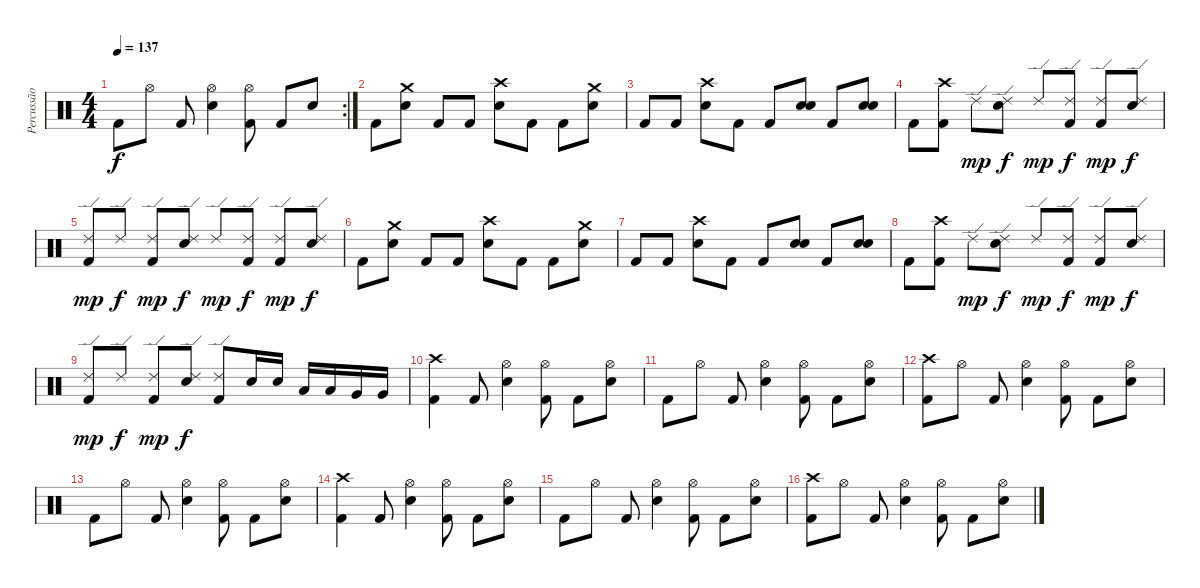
\track ("Percussão" "Percussão") {instrument percussion}
\staff {score}
\articulation defaults
\rc 2
\ts (4 4)
\tempo 137
\clef neutral
\ks c "Kick (hit) 2".8{dy f} "Hi-Hat (open)".8 "Kick (hit) 2".8
("Hi-Hat (open)" "Electric Snare (hit)").4 ("Hi-Hat (open)" "Kick (hit) 2").8 "Kick (hit) 2".8 "Electric Snare (hit)".8 |
"Kick (hit) 2".8 ("Crash medium (hit)" "Electric Snare (hit)").8 "Kick (hit) 2".8 "Kick (hit) 2".8 ("Crash high (hit)" "Electric Snare (hit)").8 "Kick (hit) 2".8 "Kick (hit) 2".8 ("Crash medium (hit)" "Electric Snare (hit)").8 |
"Kick (hit) 2".8 "Kick (hit) 2".8 ("Crash high (hit)" "Electric Snare (hit)").8 "Kick (hit) 2".8 "Kick (hit) 2".8 ("Electric Snare (hit)" "Electric Snare (hit)").8{bd 60} "Kick (hit) 2".8 ("Electric Snare (hit)" "Electric Snare (hit)").8{bd 60} |
"Kick (hit) 2".8 ("Crash high (hit)" "Kick (hit) 2").8 "Ride (edge) 2".8{dy mp} ("Ride (edge) 2" "Electric Snare (hit)").8{dy f} "Ride (edge) 2".8{dy mp} ("Ride (edge) 2" "Kick (hit) 2").8{dy f} ("Ride (edge) 2" "Kick (hit) 2").8{dy mp} ("Ride (edge) 2" "Electric Snare (hit)").8{dy f} |
("Ride (edge) 2" "Kick (hit) 2").8{dy mp} "Ride (edge) 2".8{dy f} ("Ride (edge) 2" "Kick (hit) 2").8{dy mp} ("Ride (edge) 2" "Electric Snare (hit)").8{dy f} "Ride (edge) 2".8{dy mp} ("Ride (edge) 2" "Kick (hit) 2").8{dy f} ("Ride (edge) 2" "Kick (hit) 2").8{dy mp} ("Ride (edge) 2" "Electric Snare (hit)").8{dy f} |
"Kick (hit) 2".8 ("Crash medium (hit)" "Electric Snare (hit)").8 "Kick (hit) 2".8 "Kick (hit) 2".8 ("Crash high (hit)" "Electric Snare (hit)").8 "Kick (hit) 2".8 "Kick (hit) 2".8 ("Crash medium (hit)" "Electric Snare (hit)").8 |
"Kick (hit) 2".8 "Kick (hit) 2".8 ("Crash high (hit)" "Electric Snare (hit)").8 "Kick (hit) 2".8 "Kick (hit) 2".8 ("Electric Snare (hit)" "Electric Snare (hit)").8{bd 60} "Kick (hit) 2".8 ("Electric Snare (hit)" "Electric Snare (hit)").8{bd 60} |
"Kick (hit) 2".8 ("Crash high (hit)" "Kick (hit) 2").8 "Ride (edge) 2".8{dy mp} ("Ride (edge) 2" "Electric Snare (hit)").8{dy f} "Ride (edge) 2".8{dy mp} ("Ride (edge) 2" "Kick (hit) 2").8{dy f} ("Ride (edge) 2" "Kick (hit) 2").8{dy mp} ("Ride (edge) 2" "Electric Snare (hit)").8{dy f} |
("Ride (edge) 2" "Kick (hit) 2").8{dy mp} "Ride (edge) 2".8{dy f} ("Ride (edge) 2" "Kick (hit) 2").8{dy mp} ("Ride (edge) 2" "Electric Snare (hit)").8{dy f} ("Ride (edge) 2" "Kick (hit) 2").8 "Electric Snare (hit)".16 "Electric Snare (hit)".16 "Low Tom (hit)".16 "Low Tom (hit)".16 "Very Low Tom (hit)".16 "Very Low Tom (hit)".16 |
("Crash high (hit)" "Kick (hit) 2").4 "Kick (hit) 2".8 ("Hi-Hat (open)" "Electric Snare (hit)").4 ("Hi-Hat (open)" "Kick (hit) 2").8 "Kick (hit) 2".8 ("Hi-Hat (open)" "Electric Snare (hit)").8 |
"Kick (hit) 2".8 "Hi-Hat (open)".8 "Kick (hit) 2".8 ("Hi-Hat (open)" "Electric Snare (hit)").4 ("Hi-Hat (open)" "Kick (hit) 2").8 "Kick (hit) 2".8 ("Hi-Hat (open)" "Electric Snare (hit)").8 |
("Crash high (hit)" "Kick (hit) 2").8 "Hi-Hat (open)".8 "Kick (hit) 2".8 ("Hi-Hat (open)" "Electric Snare (hit)").4 ("Hi-Hat (open)" "Kick (hit) 2").8 "Kick (hit) 2".8 ("Hi-Hat (open)" "Electric Snare (hit)").8 |
"Kick (hit) 2".8 "Hi-Hat (open)".8 "Kick (hit) 2".8 ("Hi-Hat (open)" "Electric Snare (hit)").4 ("Hi-Hat (open)" "Kick (hit) 2").8 "Kick (hit) 2".8 ("Hi-Hat (open)" "Electric Snare (hit)").8 |
("Crash high (hit)" "Kick (hit) 2").4 "Kick (hit) 2".8 ("Hi-Hat (open)" "Electric Snare (hit)").4 ("Hi-Hat (open)" "Kick (hit) 2").8 "Kick (hit) 2".8 ("Hi-Hat (open)" "Electric Snare (hit)").8 |
"Kick (hit) 2".8 "Hi-Hat (open)".8 "Kick (hit) 2".8 ("Hi-Hat (open)" "Electric Snare (hit)").4 ("Hi-Hat (open)" "Kick (hit) 2").8 "Kick (hit) 2".8 ("Hi-Hat (open)" "Electric Snare (hit)").8 |
("Crash high (hit)" "Kick (hit) 2").8 "Hi-Hat (open)".8 "Kick (hit) 2".8 ("Hi-Hat (open)" "Electric Snare (hit)").4 ("Hi-Hat (open)" "Kick (hit) 2").8 "Kick (hit) 2".8 ("Hi-Hat (open)" "Electric Snare (hit)").8
